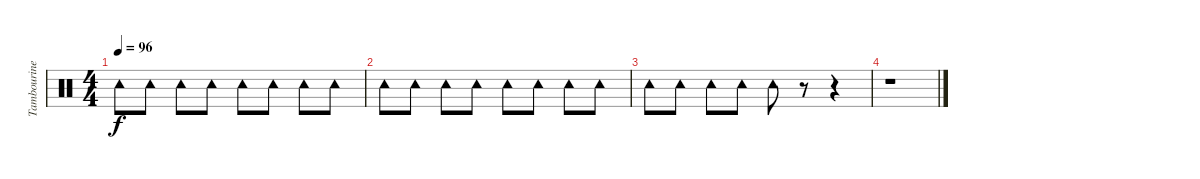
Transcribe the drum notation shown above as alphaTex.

\track ("Tambourine" "Tambourine") {instrument percussion}
\staff {score}
\articulation defaults
\ts (4 4)
\tempo 96
\clef neutral
\ks c "Tambourine (hit)".8{dy f} "Tambourine (hit)".8 "Tambourine (hit)".8 "Tambourine (hit)".8 "Tambourine (hit)".8 "Tambourine (hit)".8 "Tambourine (hit)".8 "Tambourine (hit)".8
|
"Tambourine (hit)".8 "Tambourine (hit)".8 "Tambourine (hit)".8 "Tambourine (hit)".8 "Tambourine (hit)".8 "Tambourine (hit)".8 "Tambourine (hit)".8 "Tambourine (hit)".8 |
"Tambourine (hit)".8 "Tambourine (hit)".8 "Tambourine (hit)".8 "Tambourine (hit)".8 "Tambourine (hit)".8 r.8 r.4 |
r.1
